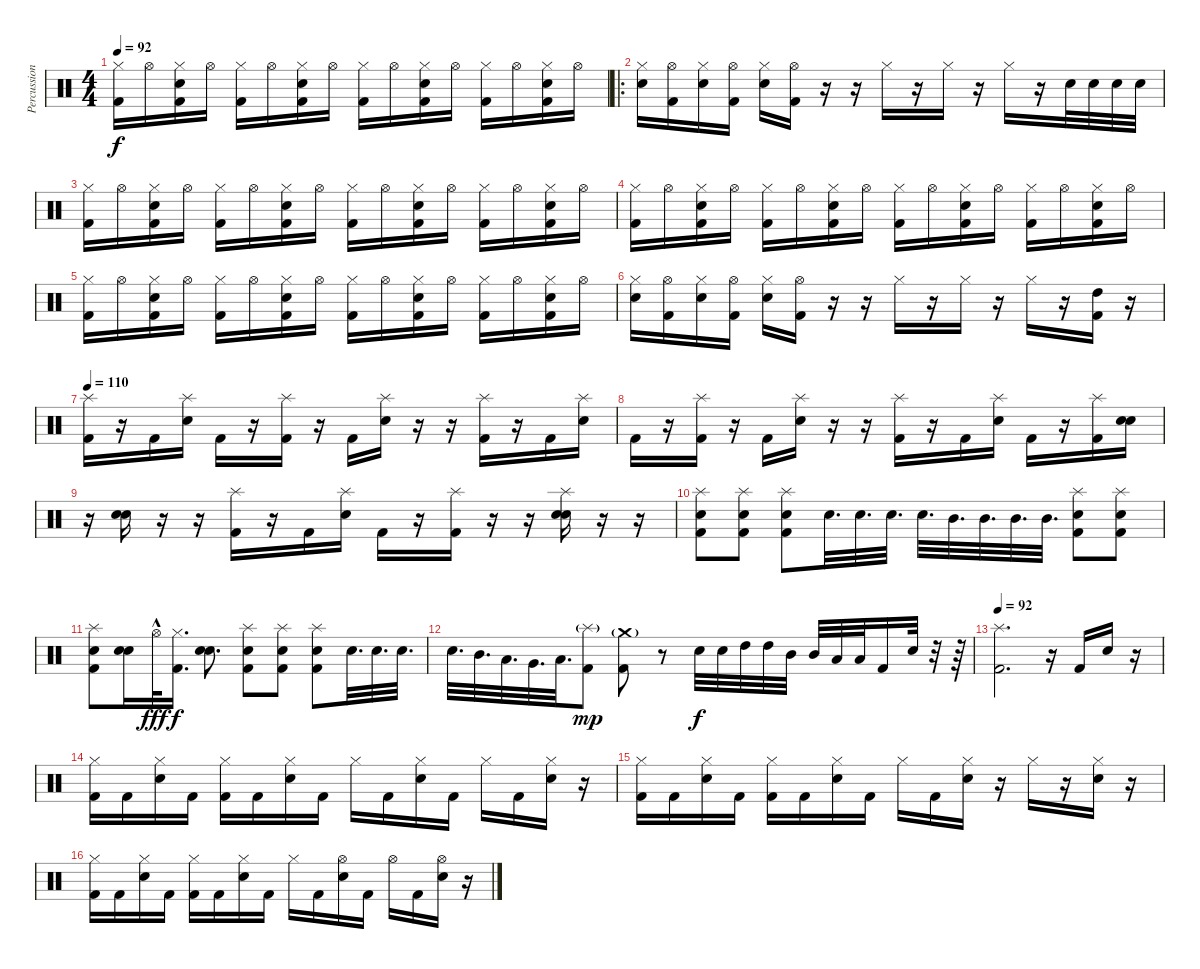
\track ("Percussion" "Percussion") {instrument percussion}
\staff {score}
\articulation defaults
\ts (4 4)
\tempo 92
\clef neutral
\ks c
("Hi-Hat (closed)" "Kick (hit) 2").16{dy f} "Hi-Hat (open)".16 ("Hi-Hat (closed)" "Electric Snare (hit)" "Kick (hit) 2").16 "Hi-Hat (open)".16 ("Hi-Hat (closed)" "Kick (hit) 2").16 "Hi-Hat (open)".16 ("Hi-Hat (closed)" "Electric Snare (hit)" "Kick (hit) 2").16 "Hi-Hat (open)".16 ("Hi-Hat (closed)" "Kick (hit) 2").16 "Hi-Hat (open)".16 ("Hi-Hat (closed)" "Electric Snare (hit)" "Kick (hit) 2").16 "Hi-Hat (open)".16 ("Hi-Hat (closed)" "Kick (hit) 2").16 "Hi-Hat (open)".16 ("Hi-Hat (closed)" "Electric Snare (hit)" "Kick (hit) 2").16 "Hi-Hat (open)".16 |
\ro
("Hi-Hat (closed)" "Electric Snare (hit)").16 ("Hi-Hat (open)" "Kick (hit) 2").16 ("Hi-Hat (closed)" "Electric Snare (hit)").16 ("Hi-Hat (open)" "Kick (hit) 2").16 ("Hi-Hat (closed)" "Electric Snare (hit)").16 ("Hi-Hat (open)" "Kick (hit) 2").16 r.16 r.16 "Hi-Hat (closed)".16 r.16 "Hi-Hat (closed)".16 r.16 "Hi-Hat (closed)".16 r.16 "Electric Snare (hit)".32 "Electric Snare (hit)".32 "Electric Snare (hit)".32 "Electric Snare (hit)".32 |
("Hi-Hat (closed)" "Kick (hit) 2").16 "Hi-Hat (open)".16 ("Hi-Hat (closed)" "Electric Snare (hit)" "Kick (hit) 2").16 "Hi-Hat (open)".16 ("Hi-Hat (closed)" "Kick (hit) 2").16 "Hi-Hat (open)".16 ("Hi-Hat (closed)" "Electric Snare (hit)" "Kick (hit) 2").16 "Hi-Hat (open)".16 ("Hi-Hat (closed)" "Kick (hit) 2").16 "Hi-Hat (open)".16 ("Hi-Hat (closed)" "Electric Snare (hit)" "Kick (hit) 2").16 "Hi-Hat (open)".16 ("Hi-Hat (closed)" "Kick (hit) 2").16 "Hi-Hat (open)".16 ("Hi-Hat (closed)" "Electric Snare (hit)" "Kick (hit) 2").16 "Hi-Hat (open)".16 |
("Hi-Hat (closed)" "Kick (hit) 2").16 "Hi-Hat (open)".16 ("Hi-Hat (closed)" "Electric Snare (hit)" "Kick (hit) 2").16 "Hi-Hat (open)".16 ("Hi-Hat (closed)" "Kick (hit) 2").16 "Hi-Hat (open)".16 ("Hi-Hat (closed)" "Electric Snare (hit)" "Kick (hit) 2").16 "Hi-Hat (open)".16 ("Hi-Hat (closed)" "Kick (hit) 2").16 "Hi-Hat (open)".16 ("Hi-Hat (closed)" "Electric Snare (hit)" "Kick (hit) 2").16 "Hi-Hat (open)".16 ("Hi-Hat (closed)" "Kick (hit) 2").16 "Hi-Hat (open)".16 ("Hi-Hat (closed)" "Electric Snare (hit)" "Kick (hit) 2").16 "Hi-Hat (open)".16 |
("Hi-Hat (closed)" "Kick (hit) 2").16 "Hi-Hat (open)".16 ("Hi-Hat (closed)" "Electric Snare (hit)" "Kick (hit) 2").16 "Hi-Hat (open)".16 ("Hi-Hat (closed)" "Kick (hit) 2").16 "Hi-Hat (open)".16 ("Hi-Hat (closed)" "Electric Snare (hit)" "Kick (hit) 2").16 "Hi-Hat (open)".16 ("Hi-Hat (closed)" "Kick (hit) 2").16 "Hi-Hat (open)".16 ("Hi-Hat (closed)" "Electric Snare (hit)" "Kick (hit) 2").16 "Hi-Hat (open)".16 ("Hi-Hat (closed)" "Kick (hit) 2").16 "Hi-Hat (open)".16 ("Hi-Hat (closed)" "Electric Snare (hit)" "Kick (hit) 2").16 "Hi-Hat (open)".16 |
("Hi-Hat (closed)" "Electric Snare (hit)").16 ("Hi-Hat (open)" "Kick (hit) 2").16 ("Hi-Hat (closed)" "Electric Snare (hit)").16 ("Hi-Hat (open)" "Kick (hit) 2").16 ("Hi-Hat (closed)" "Electric Snare (hit)").16 ("Hi-Hat (open)" "Kick (hit) 2").16 r.16 r.16 "Hi-Hat (closed)".16 r.16 "Hi-Hat (closed)".16 r.16 "Hi-Hat (closed)".16 r.16 ("High Tom (hit)" "Kick (hit) 2").16 r.16 |
\tempo 110
("Splash (hit)" "Kick (hit) 2").16 r.16 "Kick (hit) 2".16 ("Splash (hit)" "Electric Snare (hit)").16 "Kick (hit) 2".16 r.16 ("Splash (hit)" "Kick (hit) 2").16 r.16 "Kick (hit) 2".16 ("Splash (hit)" "Electric Snare (hit)").16 r.16 r.16 ("Splash (hit)" "Kick (hit) 2").16 r.16 "Kick (hit) 2".16 ("Splash (hit)" "Electric Snare (hit)").16 |
"Kick (hit) 2".16 r.16 ("Splash (hit)" "Kick (hit) 2").16 r.16 "Kick (hit) 2".16 ("Splash (hit)" "Electric Snare (hit)").16 r.16 r.16 ("Splash (hit)" "Kick (hit) 2").16 r.16 "Kick (hit) 2".16 ("Splash (hit)" "Electric Snare (hit)").16 "Kick (hit) 2".16 r.16 ("Splash (hit)" "Kick (hit) 2").16 ("Snare (hit) 2" "Electric Snare (hit)").16 |
r.16 ("Snare (hit) 2" "Electric Snare (hit)").16 r.16 r.16 ("Splash (hit)" "Kick (hit) 2").16 r.16 "Kick (hit) 2".16 ("Splash (hit)" "Electric Snare (hit)").16 "Kick (hit) 2".16 r.16 ("Splash (hit)" "Kick (hit) 2").16 r.16 r.16 ("Splash (hit)" "Snare (hit) 2" "Electric Snare (hit)").16 r.16 r.16 |
("Splash (hit)" "Electric Snare (hit)" "Kick (hit) 2").8 ("Splash (hit)" "Electric Snare (hit)" "Kick (hit) 2").8 ("Splash (hit)" "Electric Snare (hit)" "Kick (hit) 2").8 "Electric Snare (hit)".32{d} "Electric Snare (hit)".32{d} "Electric Snare (hit)".32{d} "Electric Snare (hit)".32{d} "Mid Tom (hit)".32{d} "Mid Tom (hit)".32{d} "Mid Tom (hit)".32{d} "Mid Tom (hit)".32{d} ("Splash (hit)" "Electric Snare (hit)" "Kick (hit) 2").8 ("Splash (hit)" "Electric Snare (hit)" "Kick (hit) 2").8 |
("Splash (hit)" "Electric Snare (hit)" "Kick (hit) 2").8 ("Snare (hit) 2" "Electric Snare (hit)").16 "Hi-Hat (open)"{hac}.32{dy fff} ("Hi-Hat (closed)" "Kick (hit) 2").16{d dy f} ("Snare (hit) 2" "Electric Snare (hit)").8{d} ("Splash (hit)" "Electric Snare (hit)" "Kick (hit) 2").8 ("Splash (hit)" "Electric Snare (hit)" "Kick (hit) 2").8 ("Splash (hit)" "Electric Snare (hit)" "Kick (hit) 2").8 "Electric Snare (hit)".32{d} "Electric Snare (hit)".32{d} "Electric Snare (hit)".32{d} |
"Electric Snare (hit)".32{d} "Mid Tom (hit)".32{d} "Low Tom (hit)".32{d} "Very Low Tom (hit)".32{d} "Low Floor Tom (hit)".32{d} ("Splash (hit)"{g} "Kick (hit) 2").8{dy mp} ("Crash medium (hit)"{g} "Kick (hit) 2").8 r.8 "Electric Snare (hit)".32{dy f} "Electric Snare (hit)".32 "High Tom (hit)".32 "High Tom (hit)".32 "Mid Tom (hit)".32 "Mid Tom (hit)".32 "Low Tom (hit)".32 "Low Tom (hit)".32 "Kick (hit) 2".16 "Electric Snare (hit)".32 r.32 r.64 |
\tempo 92
("Splash (hit)" "Kick (hit) 2").2{d} r.16 "Kick (hit) 2".16 "Electric Snare (hit)".16 r.16 |
("Hi-Hat (closed)" "Kick (hit) 2").16 "Kick (hit) 2".16 ("Hi-Hat (closed)" "Electric Snare (hit)").16 "Kick (hit) 2".16 ("Hi-Hat (closed)" "Kick (hit) 2").16 "Kick (hit) 2".16 ("Hi-Hat (closed)" "Electric Snare (hit)").16 "Kick (hit) 2".16 "Hi-Hat (closed)".16 "Kick (hit) 2".16 ("Hi-Hat (closed)" "Electric Snare (hit)").16 "Kick (hit) 2".16 "Hi-Hat (closed)".16 "Kick (hit) 2".16 ("Hi-Hat (closed)" "Electric Snare (hit)").16 r.16 |
("Hi-Hat (closed)" "Kick (hit) 2").16 "Kick (hit) 2".16 ("Hi-Hat (closed)" "Electric Snare (hit)").16 "Kick (hit) 2".16 ("Hi-Hat (closed)" "Kick (hit) 2").16 "Kick (hit) 2".16 ("Hi-Hat (closed)" "Electric Snare (hit)").16 "Kick (hit) 2".16 "Hi-Hat (closed)".16 "Kick (hit) 2".16 ("Hi-Hat (closed)" "Electric Snare (hit)").16 r.16 "Hi-Hat (closed)".16 r.16 ("Hi-Hat (closed)" "Electric Snare (hit)").16 r.16 |
("Hi-Hat (closed)" "Kick (hit) 2").16 "Kick (hit) 2".16 ("Hi-Hat (closed)" "Electric Snare (hit)").16 "Kick (hit) 2".16 ("Hi-Hat (closed)" "Kick (hit) 2").16 "Kick (hit) 2".16 ("Hi-Hat (closed)" "Electric Snare (hit)").16 "Kick (hit) 2".16 "Hi-Hat (closed)".16 "Kick (hit) 2".16 ("Hi-Hat (open)" "Electric Snare (hit)").16 "Kick (hit) 2".16 "Hi-Hat (open)".16 "Kick (hit) 2".16 ("Hi-Hat (open)" "Electric Snare (hit)").16 r.16
